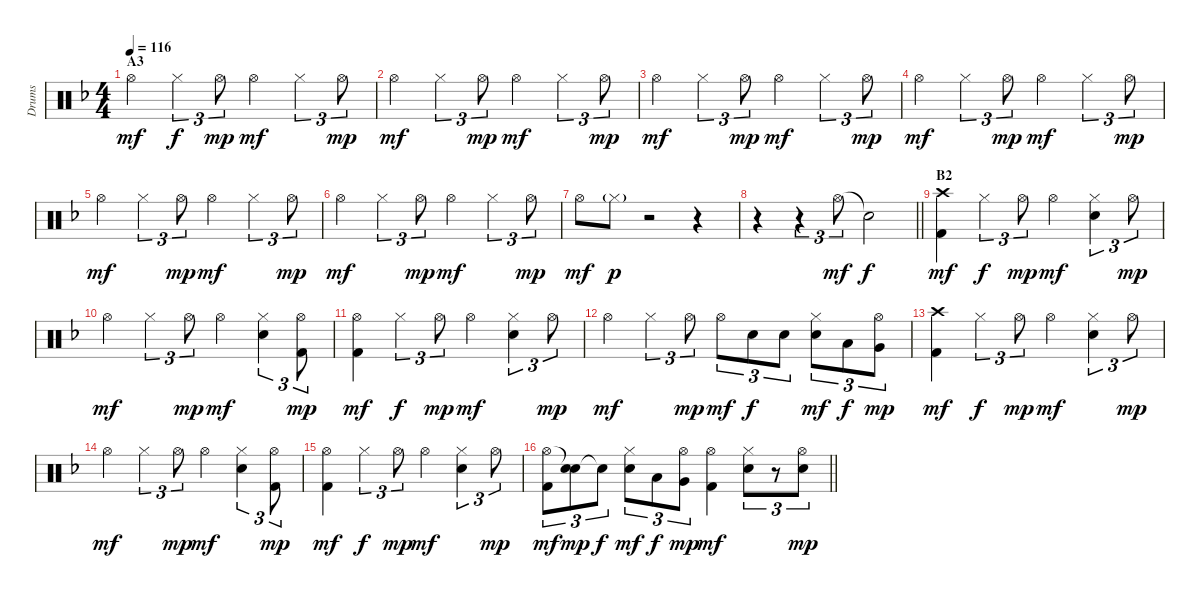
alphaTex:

\track ("Drums" "Drums") {instrument percussion}
\staff {score}
\articulation defaults
\ts (4 4)
\section ("" "A3")
\tempo 116
\clef neutral
\ks f "Hi-Hat (open)".4{dy mf} "Hi-Hat (closed)".4{tu (3 2) dy f} "Hi-Hat (open)".8{tu (3 2) dy mp} "Hi-Hat (open)".4{dy mf} "Hi-Hat (closed)".4{tu (3 2)} "Hi-Hat (open)".8{tu (3 2) dy mp}
|
"Hi-Hat (open)".4{dy mf} "Hi-Hat (closed)".4{tu (3 2)} "Hi-Hat (open)".8{tu (3 2) dy mp} "Hi-Hat (open)".4{dy mf} "Hi-Hat (closed)".4{tu (3 2)} "Hi-Hat (open)".8{tu (3 2) dy mp} |
"Hi-Hat (open)".4{dy mf} "Hi-Hat (closed)".4{tu (3 2)} "Hi-Hat (open)".8{tu (3 2) dy mp} "Hi-Hat (open)".4{dy mf} "Hi-Hat (closed)".4{tu (3 2)} "Hi-Hat (open)".8{tu (3 2) dy mp} |
"Hi-Hat (open)".4{dy mf} "Hi-Hat (closed)".4{tu (3 2)} "Hi-Hat (open)".8{tu (3 2) dy mp} "Hi-Hat (open)".4{dy mf} "Hi-Hat (closed)".4{tu (3 2)} "Hi-Hat (open)".8{tu (3 2) dy mp} |
"Hi-Hat (open)".4{dy mf} "Hi-Hat (closed)".4{tu (3 2)} "Hi-Hat (open)".8{tu (3 2) dy mp} "Hi-Hat (open)".4{dy mf} "Hi-Hat (closed)".4{tu (3 2)} "Hi-Hat (open)".8{tu (3 2) dy mp} |
"Hi-Hat (open)".4{dy mf} "Hi-Hat (closed)".4{tu (3 2)} "Hi-Hat (open)".8{tu (3 2) dy mp} "Hi-Hat (open)".4{dy mf} "Hi-Hat (closed)".4{tu (3 2)} "Hi-Hat (open)".8{tu (3 2) dy mp} |
"Hi-Hat (open)".8{dy mf} "Hi-Hat (closed)"{g}.8{dy p} r.2 r.4 |
\barLineRight lightlight
r.4 r.4{tu (3 2)} "Hi-Hat (open)".8{tu (3 2) dy mf} "Snare (hit)"{t}.2{dy f} |
\section ("" "B2")
("Crash high (hit)" "Kick (hit) 2").4{dy mf} "Hi-Hat (closed)".4{tu (3 2) dy f} "Hi-Hat (open)".8{tu (3 2) dy mp} "Hi-Hat (open)".4{dy mf} ("Hi-Hat (closed)" "Snare (hit) 2").4{tu (3 2)} "Hi-Hat (open)".8{tu (3 2) dy mp} |
"Hi-Hat (open)".4{dy mf} "Hi-Hat (closed)".4{tu (3 2)} "Hi-Hat (open)".8{tu (3 2) dy mp} "Hi-Hat (open)".4{dy mf} ("Hi-Hat (closed)" "Snare (hit) 2").4{tu (3 2)} ("Hi-Hat (open)" "Kick (hit) 2").8{tu (3 2) dy mp} |
("Hi-Hat (open)" "Kick (hit) 2").4{dy mf} "Hi-Hat (closed)".4{tu (3 2) dy f} "Hi-Hat (open)".8{tu (3 2) dy mp} "Hi-Hat (open)".4{dy mf} ("Hi-Hat (closed)" "Snare (hit) 2").4{tu (3 2)} "Hi-Hat (open)".8{tu (3 2) dy mp} |
"Hi-Hat (open)".4{dy mf} "Hi-Hat (closed)".4{tu (3 2)} "Hi-Hat (open)".8{tu (3 2) dy mp} "Hi-Hat (open)".8{tu (3 2) dy mf} "Snare (hit) 2".8{tu (3 2) dy f} "Snare (hit) 2".8{tu (3 2)} ("Hi-Hat (closed)" "Snare (hit) 2").8{tu (3 2) dy mf} "Low Tom (hit)".8{tu (3 2) dy f} ("Hi-Hat (open)" "Very Low Tom (hit)").8{tu (3 2) dy mp} |
("Crash high (hit)" "Kick (hit) 2").4{dy mf} "Hi-Hat (closed)".4{tu (3 2) dy f} "Hi-Hat (open)".8{tu (3 2) dy mp} "Hi-Hat (open)".4{dy mf} ("Hi-Hat (closed)" "Snare (hit) 2").4{tu (3 2)} "Hi-Hat (open)".8{tu (3 2) dy mp} |
"Hi-Hat (open)".4{dy mf} "Hi-Hat (closed)".4{tu (3 2)} "Hi-Hat (open)".8{tu (3 2) dy mp} "Hi-Hat (open)".4{dy mf} ("Hi-Hat (closed)" "Snare (hit) 2").4{tu (3 2)} ("Hi-Hat (open)" "Kick (hit) 2").8{tu (3 2) dy mp} |
("Hi-Hat (open)" "Kick (hit) 2").4{dy mf} "Hi-Hat (closed)".4{tu (3 2) dy f} "Hi-Hat (open)".8{tu (3 2) dy mp} "Hi-Hat (open)".4{dy mf} ("Hi-Hat (closed)" "Snare (hit) 2").4{tu (3 2)} "Hi-Hat (open)".8{tu (3 2) dy mp} |
\barLineRight lightlight
("Hi-Hat (open)" "Kick (hit) 2").8{tu (3 2) dy mf} ("Snare (hit)"{t} "Snare (hit) 2").8{tu (3 2) dy mp} "Snare (hit)"{t}.8{tu (3 2) dy f} ("Hi-Hat (closed)" "Snare (hit) 2").8{tu (3 2) dy mf} "Low Tom (hit)".8{tu (3 2) dy f} ("Hi-Hat (open)" "Very Low Tom (hit)").8{tu (3 2) dy mp} ("Hi-Hat (open)" "Kick (hit) 2").4{dy mf} ("Hi-Hat (closed)" "Snare (hit) 2").8{tu (3 2)} r.8{tu (3 2)} ("Hi-Hat (open)" "Snare (hit) 2").8{tu (3 2) dy mp}
